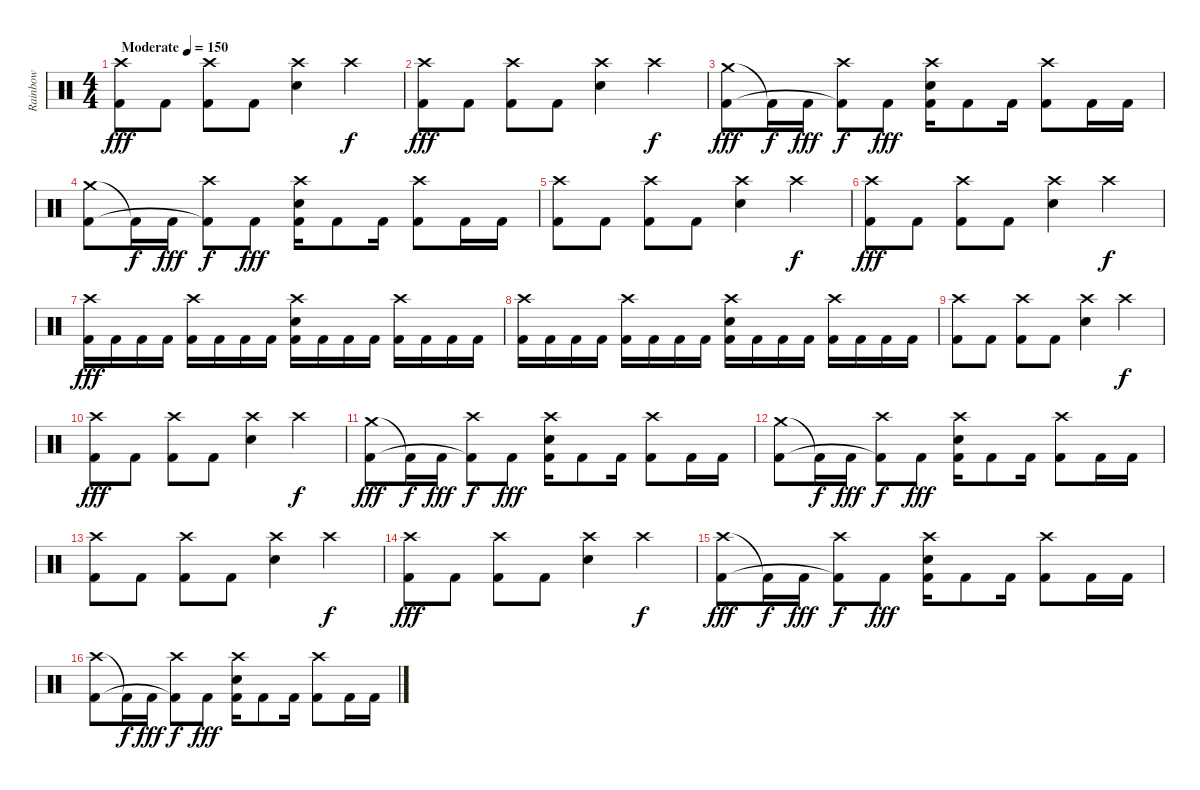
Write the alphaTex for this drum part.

\track ("Rainbow" "Rainbow") {instrument percussion}
\staff {score}
\articulation defaults
\ts (4 4)
\tempo (150 "Moderate")
\clef neutral
\ks c
("Crash high (hit)" "Kick (hit) 2").8{dy fff} "Kick (hit) 2".8 ("Crash high (hit)" "Kick (hit) 2").8 "Kick (hit) 2".8 ("Crash high (hit)" "Snare (hit) 2").4 "Crash high (hit)".4{dy f} |
("Crash high (hit)" "Kick (hit) 2").8{dy fff} "Kick (hit) 2".8 ("Crash high (hit)" "Kick (hit) 2").8 "Kick (hit) 2".8 ("Crash high (hit)" "Snare (hit) 2").4 "Crash high (hit)".4{dy f} |
("Crash medium (hit)" "Kick (hit) 2").8{dy fff} "Kick (hit) 2"{t}.16{dy f} "Kick (hit) 2".16{dy fff} ("Crash high (hit)" "Kick (hit) 2"{t}).8{dy f} "Kick (hit) 2".8{dy fff} ("Crash high (hit)" "Snare (hit) 2" "Kick (hit) 2").16 "Kick (hit) 2".8 "Kick (hit) 2".16 ("Crash high (hit)" "Kick (hit) 2").8 "Kick (hit) 2".16 "Kick (hit) 2".16 |
("Crash medium (hit)" "Kick (hit) 2").8 "Kick (hit) 2"{t}.16{dy f} "Kick (hit) 2".16{dy fff} ("Crash high (hit)" "Kick (hit) 2"{t}).8{dy f} "Kick (hit) 2".8{dy fff} ("Crash high (hit)" "Snare (hit) 2" "Kick (hit) 2").16 "Kick (hit) 2".8 "Kick (hit) 2".16 ("Crash high (hit)" "Kick (hit) 2").8 "Kick (hit) 2".16 "Kick (hit) 2".16 |
("Crash high (hit)" "Kick (hit) 2").8 "Kick (hit) 2".8 ("Crash high (hit)" "Kick (hit) 2").8 "Kick (hit) 2".8 ("Crash high (hit)" "Snare (hit) 2").4 "Crash high (hit)".4{dy f} |
("Crash high (hit)" "Kick (hit) 2").8{dy fff} "Kick (hit) 2".8 ("Crash high (hit)" "Kick (hit) 2").8 "Kick (hit) 2".8 ("Crash high (hit)" "Snare (hit) 2").4 "Crash high (hit)".4{dy f} |
("Crash high (hit)" "Kick (hit) 2").16{dy fff} "Kick (hit) 2".16 "Kick (hit) 2".16 "Kick (hit) 2".16 ("Crash high (hit)" "Kick (hit) 2").16 "Kick (hit) 2".16 "Kick (hit) 2".16 "Kick (hit) 2".16 ("Crash high (hit)" "Snare (hit) 2" "Kick (hit) 2").16 "Kick (hit) 2".16 "Kick (hit) 2".16 "Kick (hit) 2".16 ("Crash high (hit)" "Kick (hit) 2").16 "Kick (hit) 2".16 "Kick (hit) 2".16 "Kick (hit) 2".16 |
("Crash high (hit)" "Kick (hit) 2").16 "Kick (hit) 2".16 "Kick (hit) 2".16 "Kick (hit) 2".16 ("Crash high (hit)" "Kick (hit) 2").16 "Kick (hit) 2".16 "Kick (hit) 2".16 "Kick (hit) 2".16 ("Crash high (hit)" "Snare (hit) 2" "Kick (hit) 2").16 "Kick (hit) 2".16 "Kick (hit) 2".16 "Kick (hit) 2".16 ("Crash high (hit)" "Kick (hit) 2").16 "Kick (hit) 2".16 "Kick (hit) 2".16 "Kick (hit) 2".16 |
("Crash high (hit)" "Kick (hit) 2").8 "Kick (hit) 2".8 ("Crash high (hit)" "Kick (hit) 2").8 "Kick (hit) 2".8 ("Crash high (hit)" "Snare (hit) 2").4 "Crash high (hit)".4{dy f} |
("Crash high (hit)" "Kick (hit) 2").8{dy fff} "Kick (hit) 2".8 ("Crash high (hit)" "Kick (hit) 2").8 "Kick (hit) 2".8 ("Crash high (hit)" "Snare (hit) 2").4 "Crash high (hit)".4{dy f} |
("Crash medium (hit)" "Kick (hit) 2").8{dy fff} "Kick (hit) 2"{t}.16{dy f} "Kick (hit) 2".16{dy fff} ("Crash high (hit)" "Kick (hit) 2"{t}).8{dy f} "Kick (hit) 2".8{dy fff} ("Crash high (hit)" "Snare (hit) 2" "Kick (hit) 2").16 "Kick (hit) 2".8 "Kick (hit) 2".16 ("Crash high (hit)" "Kick (hit) 2").8 "Kick (hit) 2".16 "Kick (hit) 2".16 |
("Crash medium (hit)" "Kick (hit) 2").8 "Kick (hit) 2"{t}.16{dy f} "Kick (hit) 2".16{dy fff} ("Crash high (hit)" "Kick (hit) 2"{t}).8{dy f} "Kick (hit) 2".8{dy fff} ("Crash high (hit)" "Snare (hit) 2" "Kick (hit) 2").16 "Kick (hit) 2".8 "Kick (hit) 2".16 ("Crash high (hit)" "Kick (hit) 2").8 "Kick (hit) 2".16 "Kick (hit) 2".16 |
("Crash high (hit)" "Kick (hit) 2").8 "Kick (hit) 2".8 ("Crash high (hit)" "Kick (hit) 2").8 "Kick (hit) 2".8 ("Crash high (hit)" "Snare (hit) 2").4 "Crash high (hit)".4{dy f} |
("Crash high (hit)" "Kick (hit) 2").8{dy fff} "Kick (hit) 2".8 ("Crash high (hit)" "Kick (hit) 2").8 "Kick (hit) 2".8 ("Crash high (hit)" "Snare (hit) 2").4 "Crash high (hit)".4{dy f} |
("Crash high (hit)" "Kick (hit) 2").8{dy fff} "Kick (hit) 2"{t}.16{dy f} "Kick (hit) 2".16{dy fff} ("Crash high (hit)" "Kick (hit) 2"{t}).8{dy f} "Kick (hit) 2".8{dy fff} ("Crash high (hit)" "Snare (hit) 2" "Kick (hit) 2").16 "Kick (hit) 2".8 "Kick (hit) 2".16 ("Crash high (hit)" "Kick (hit) 2").8 "Kick (hit) 2".16 "Kick (hit) 2".16 |
("Crash high (hit)" "Kick (hit) 2").8 "Kick (hit) 2"{t}.16{dy f} "Kick (hit) 2".16{dy fff} ("Crash high (hit)" "Kick (hit) 2"{t}).8{dy f} "Kick (hit) 2".8{dy fff} ("Crash high (hit)" "Snare (hit) 2" "Kick (hit) 2").16 "Kick (hit) 2".8 "Kick (hit) 2".16 ("Crash high (hit)" "Kick (hit) 2").8 "Kick (hit) 2".16 "Kick (hit) 2".16
